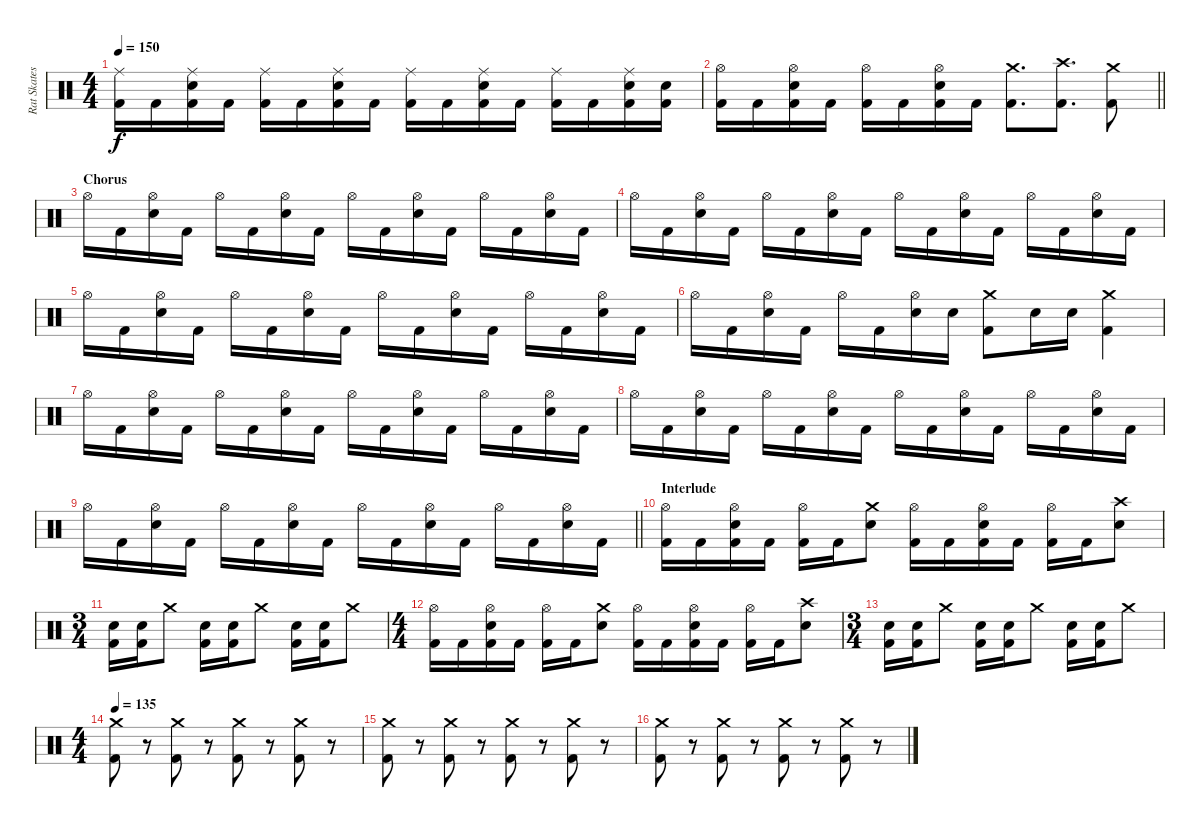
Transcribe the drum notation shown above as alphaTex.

\track ("Rat Skates" "Rat Skates") {instrument percussion}
\staff {score}
\articulation defaults
\ts (4 4)
\tempo 150
\clef neutral
\ks c
("Ride (middle)" "Kick (hit) 2").16{dy f} "Kick (hit) 2".16 ("Ride (middle)" "Snare (hit) 2" "Kick (hit) 2").16 "Kick (hit) 2".16 ("Ride (middle)" "Kick (hit) 2").16 "Kick (hit) 2".16 ("Ride (middle)" "Snare (hit) 2" "Kick (hit) 2").16 "Kick (hit) 2".16 ("Ride (middle)" "Kick (hit) 2").16 "Kick (hit) 2".16 ("Ride (middle)" "Snare (hit) 2" "Kick (hit) 2").16 "Kick (hit) 2".16 ("Ride (middle)" "Kick (hit) 2").16 "Kick (hit) 2".16 ("Ride (middle)" "Snare (hit) 2" "Kick (hit) 2").16 ("Snare (hit) 2" "Kick (hit) 2").16 |
\barLineRight lightlight
("Hi-Hat (open)" "Kick (hit) 2").16 "Kick (hit) 2".16 ("Hi-Hat (open)" "Snare (hit) 2" "Kick (hit) 2").16 "Kick (hit) 2".16 ("Hi-Hat (open)" "Kick (hit) 2").16 "Kick (hit) 2".16 ("Hi-Hat (open)" "Snare (hit) 2" "Kick (hit) 2").16 "Kick (hit) 2".16 ("Crash medium (hit)" "Kick (hit) 2").8{d} ("Crash high (hit)" "Kick (hit) 2").8{d} ("Crash medium (hit)" "Kick (hit) 2").8 |
\section ("" "Chorus")
"Hi-Hat (open)".16 "Kick (hit) 2".16 ("Hi-Hat (open)" "Snare (hit) 2").16 "Kick (hit) 2".16 "Hi-Hat (open)".16 "Kick (hit) 2".16 ("Hi-Hat (open)" "Snare (hit) 2").16 "Kick (hit) 2".16 "Hi-Hat (open)".16 "Kick (hit) 2".16 ("Hi-Hat (open)" "Snare (hit) 2").16 "Kick (hit) 2".16 "Hi-Hat (open)".16 "Kick (hit) 2".16 ("Hi-Hat (open)" "Snare (hit) 2").16 "Kick (hit) 2".16 |
"Hi-Hat (open)".16 "Kick (hit) 2".16 ("Hi-Hat (open)" "Snare (hit) 2").16 "Kick (hit) 2".16 "Hi-Hat (open)".16 "Kick (hit) 2".16 ("Hi-Hat (open)" "Snare (hit) 2").16 "Kick (hit) 2".16 "Hi-Hat (open)".16 "Kick (hit) 2".16 ("Hi-Hat (open)" "Snare (hit) 2").16 "Kick (hit) 2".16 "Hi-Hat (open)".16 "Kick (hit) 2".16 ("Hi-Hat (open)" "Snare (hit) 2").16 "Kick (hit) 2".16 |
"Hi-Hat (open)".16 "Kick (hit) 2".16 ("Hi-Hat (open)" "Snare (hit) 2").16 "Kick (hit) 2".16 "Hi-Hat (open)".16 "Kick (hit) 2".16 ("Hi-Hat (open)" "Snare (hit) 2").16 "Kick (hit) 2".16 "Hi-Hat (open)".16 "Kick (hit) 2".16 ("Hi-Hat (open)" "Snare (hit) 2").16 "Kick (hit) 2".16 "Hi-Hat (open)".16 "Kick (hit) 2".16 ("Hi-Hat (open)" "Snare (hit) 2").16 "Kick (hit) 2".16 |
"Hi-Hat (open)".16 "Kick (hit) 2".16 ("Hi-Hat (open)" "Snare (hit) 2").16 "Kick (hit) 2".16 "Hi-Hat (open)".16 "Kick (hit) 2".16 ("Hi-Hat (open)" "Snare (hit) 2").16 "Snare (hit) 2".16 ("Crash medium (hit)" "Kick (hit) 2").8 "Snare (hit) 2".16 "Snare (hit) 2".16 ("Crash medium (hit)" "Kick (hit) 2").4 |
"Hi-Hat (open)".16 "Kick (hit) 2".16 ("Hi-Hat (open)" "Snare (hit) 2").16 "Kick (hit) 2".16 "Hi-Hat (open)".16 "Kick (hit) 2".16 ("Hi-Hat (open)" "Snare (hit) 2").16 "Kick (hit) 2".16 "Hi-Hat (open)".16 "Kick (hit) 2".16 ("Hi-Hat (open)" "Snare (hit) 2").16 "Kick (hit) 2".16 "Hi-Hat (open)".16 "Kick (hit) 2".16 ("Hi-Hat (open)" "Snare (hit) 2").16 "Kick (hit) 2".16 |
"Hi-Hat (open)".16 "Kick (hit) 2".16 ("Hi-Hat (open)" "Snare (hit) 2").16 "Kick (hit) 2".16 "Hi-Hat (open)".16 "Kick (hit) 2".16 ("Hi-Hat (open)" "Snare (hit) 2").16 "Kick (hit) 2".16 "Hi-Hat (open)".16 "Kick (hit) 2".16 ("Hi-Hat (open)" "Snare (hit) 2").16 "Kick (hit) 2".16 "Hi-Hat (open)".16 "Kick (hit) 2".16 ("Hi-Hat (open)" "Snare (hit) 2").16 "Kick (hit) 2".16 |
\barLineRight lightlight "Hi-Hat (open)".16 "Kick (hit) 2".16
("Hi-Hat (open)" "Snare (hit) 2").16 "Kick (hit) 2".16 "Hi-Hat (open)".16 "Kick (hit) 2".16 ("Hi-Hat (open)" "Snare (hit) 2").16 "Kick (hit) 2".16 "Hi-Hat (open)".16 "Kick (hit) 2".16 ("Hi-Hat (open)" "Snare (hit) 2").16 "Kick (hit) 2".16 "Hi-Hat (open)".16 "Kick (hit) 2".16 ("Hi-Hat (open)" "Snare (hit) 2").16 "Kick (hit) 2".16 |
\section ("" "Interlude")
("Hi-Hat (open)" "Kick (hit) 2").16 "Kick (hit) 2".16 ("Hi-Hat (open)" "Snare (hit) 2" "Kick (hit) 2").16 "Kick (hit) 2".16 ("Hi-Hat (open)" "Kick (hit) 2").16 "Kick (hit) 2".16 ("Crash medium (hit)" "Snare (hit) 2").8 ("Hi-Hat (open)" "Kick (hit) 2").16 "Kick (hit) 2".16 ("Hi-Hat (open)" "Snare (hit) 2" "Kick (hit) 2").16 "Kick (hit) 2".16 ("Hi-Hat (open)" "Kick (hit) 2").16 "Kick (hit) 2".16 ("Crash high (hit)" "Snare (hit) 2").8 |
\ts (3 4)
("Snare (hit) 2" "Kick (hit) 2").16 ("Snare (hit) 2" "Kick (hit) 2").16 "Crash medium (hit)".8 ("Snare (hit) 2" "Kick (hit) 2").16 ("Snare (hit) 2" "Kick (hit) 2").16 "Crash medium (hit)".8 ("Snare (hit) 2" "Kick (hit) 2").16 ("Snare (hit) 2" "Kick (hit) 2").16 "Crash medium (hit)".8 |
\ts (4 4)
("Hi-Hat (open)" "Kick (hit) 2").16 "Kick (hit) 2".16 ("Hi-Hat (open)" "Snare (hit) 2" "Kick (hit) 2").16 "Kick (hit) 2".16 ("Hi-Hat (open)" "Kick (hit) 2").16 "Kick (hit) 2".16 ("Crash medium (hit)" "Snare (hit) 2").8 ("Hi-Hat (open)" "Kick (hit) 2").16 "Kick (hit) 2".16 ("Hi-Hat (open)" "Snare (hit) 2" "Kick (hit) 2").16 "Kick (hit) 2".16 ("Hi-Hat (open)" "Kick (hit) 2").16 "Kick (hit) 2".16 ("Crash high (hit)" "Snare (hit) 2").8 |
\ts (3 4)
("Snare (hit) 2" "Kick (hit) 2").16 ("Snare (hit) 2" "Kick (hit) 2").16 "Crash medium (hit)".8 ("Snare (hit) 2" "Kick (hit) 2").16 ("Snare (hit) 2" "Kick (hit) 2").16 "Crash medium (hit)".8 ("Snare (hit) 2" "Kick (hit) 2").16 ("Snare (hit) 2" "Kick (hit) 2").16 "Crash medium (hit)".8 |
\ts (4 4)
\tempo 135
("Crash medium (hit)" "Kick (hit) 2").8 r.8 ("Crash medium (hit)" "Kick (hit) 2").8 r.8 ("Crash medium (hit)" "Kick (hit) 2").8 r.8 ("Crash medium (hit)" "Kick (hit) 2").8 r.8 |
("Crash medium (hit)" "Kick (hit) 2").8 r.8 ("Crash medium (hit)" "Kick (hit) 2").8 r.8 ("Crash medium (hit)" "Kick (hit) 2").8 r.8 ("Crash medium (hit)" "Kick (hit) 2").8 r.8 |
("Crash medium (hit)" "Kick (hit) 2").8 r.8 ("Crash medium (hit)" "Kick (hit) 2").8 r.8 ("Crash medium (hit)" "Kick (hit) 2").8 r.8 ("Crash medium (hit)" "Kick (hit) 2").8 r.8
